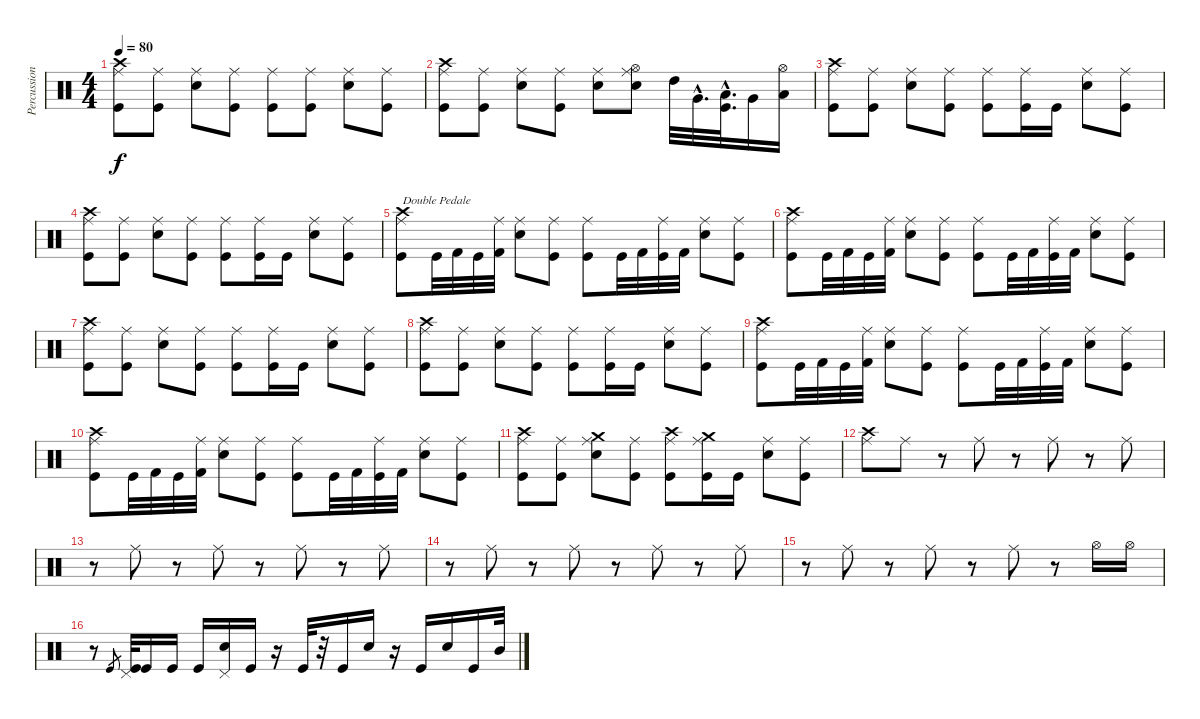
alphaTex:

\track ("Percussions" "Percussion") {instrument percussion}
\staff {score}
\articulation defaults
\ts (4 4)
\tempo 80
\clef neutral
\ks c
("Ride (middle)" "Crash high (hit)" "Kick (hit)").8{dy f} ("Ride (middle)" "Kick (hit)").8 ("Ride (middle)" "Electric Snare (hit)").8 ("Ride (middle)" "Kick (hit)").8 ("Ride (middle)" "Kick (hit)").8 ("Ride (middle)" "Kick (hit)").8 ("Ride (middle)" "Electric Snare (hit)").8 ("Ride (middle)" "Kick (hit)").8 |
("Ride (middle)" "Crash high (hit)" "Kick (hit)").8 ("Ride (middle)" "Kick (hit)").8 ("Ride (middle)" "Electric Snare (hit)").8 ("Ride (middle)" "Kick (hit)").8 ("Ride (middle)" "Electric Snare (hit)").8 ("Ride (middle)" "Hi-Hat (open)" "Electric Snare (hit)").8 "High Tom (hit)".32 "Very Low Tom (hit)"{hac}.32{d} ("Low Tom (hit)"{hac} "Kick (hit)"{hac}).32{d} "Very Low Tom (hit)".16 ("Hi-Hat (open)" "Low Floor Tom (hit)").16 |
("Ride (middle)" "Crash high (hit)" "Kick (hit)").8 ("Ride (middle)" "Kick (hit)").8 ("Ride (middle)" "Electric Snare (hit)").8 ("Ride (middle)" "Kick (hit)").8 ("Ride (middle)" "Kick (hit)").8 ("Ride (middle)" "Kick (hit)").16 "Kick (hit)".16 ("Ride (middle)" "Electric Snare (hit)").8 ("Ride (middle)" "Kick (hit)").8 |
("Ride (middle)" "Crash high (hit)" "Kick (hit)").8 ("Ride (middle)" "Kick (hit)").8 ("Ride (middle)" "Electric Snare (hit)").8 ("Ride (middle)" "Kick (hit)").8 ("Ride (middle)" "Kick (hit)").8 ("Ride (middle)" "Kick (hit)").16 "Kick (hit)".16 ("Ride (middle)" "Electric Snare (hit)").8 ("Ride (middle)" "Kick (hit)").8 |
("Ride (middle)" "Crash high (hit)" "Kick (hit)").8{txt "Double Pedale"} "Kick (hit)".32 "Kick (hit) 2".32 "Kick (hit)".32 ("Ride (middle)" "Kick (hit) 2").32 ("Ride (middle)" "Electric Snare (hit)").8 ("Ride (middle)" "Kick (hit)").8 ("Ride (middle)" "Kick (hit)").8 "Kick (hit)".32 "Kick (hit) 2".32 ("Ride (middle)" "Kick (hit)").32 "Kick (hit) 2".32 ("Ride (middle)" "Electric Snare (hit)").8 ("Ride (middle)" "Kick (hit)").8 |
("Ride (middle)" "Crash high (hit)" "Kick (hit)").8 "Kick (hit)".32 "Kick (hit) 2".32 "Kick (hit)".32 ("Ride (middle)" "Kick (hit) 2").32 ("Ride (middle)" "Electric Snare (hit)").8 ("Ride (middle)" "Kick (hit)").8 ("Ride (middle)" "Kick (hit)").8 "Kick (hit)".32 "Kick (hit) 2".32 ("Ride (middle)" "Kick (hit)").32 "Kick (hit) 2".32 ("Ride (middle)" "Electric Snare (hit)").8 ("Ride (middle)" "Kick (hit)").8 |
("Ride (middle)" "Crash high (hit)" "Kick (hit)").8 ("Ride (middle)" "Kick (hit)").8 ("Ride (middle)" "Electric Snare (hit)").8 ("Ride (middle)" "Kick (hit)").8 ("Ride (middle)" "Kick (hit)").8 ("Ride (middle)" "Kick (hit)").16 "Kick (hit)".16 ("Ride (middle)" "Electric Snare (hit)").8 ("Ride (middle)" "Kick (hit)").8 |
("Ride (middle)" "Crash high (hit)" "Kick (hit)").8 ("Ride (middle)" "Kick (hit)").8 ("Ride (middle)" "Electric Snare (hit)").8 ("Ride (middle)" "Kick (hit)").8 ("Ride (middle)" "Kick (hit)").8 ("Ride (middle)" "Kick (hit)").16 "Kick (hit)".16 ("Ride (middle)" "Electric Snare (hit)").8 ("Ride (middle)" "Kick (hit)").8 |
("Ride (middle)" "Crash high (hit)" "Kick (hit)").8 "Kick (hit)".32 "Kick (hit) 2".32 "Kick (hit)".32 ("Ride (middle)" "Kick (hit) 2").32 ("Ride (middle)" "Electric Snare (hit)").8 ("Ride (middle)" "Kick (hit)").8 ("Ride (middle)" "Kick (hit)").8 "Kick (hit)".32 "Kick (hit) 2".32 ("Ride (middle)" "Kick (hit)").32 "Kick (hit) 2".32 ("Ride (middle)" "Electric Snare (hit)").8 ("Ride (middle)" "Kick (hit)").8 |
("Ride (middle)" "Crash high (hit)" "Kick (hit)").8 "Kick (hit)".32 "Kick (hit) 2".32 "Kick (hit)".32 ("Ride (middle)" "Kick (hit) 2").32 ("Ride (middle)" "Electric Snare (hit)").8 ("Ride (middle)" "Kick (hit)").8 ("Ride (middle)" "Kick (hit)").8 "Kick (hit)".32 "Kick (hit) 2".32 ("Ride (middle)" "Kick (hit)").32 "Kick (hit) 2".32 ("Ride (middle)" "Electric Snare (hit)").8 ("Ride (middle)" "Kick (hit)").8 |
("Ride (middle)" "Crash high (hit)" "Kick (hit)").8 ("Ride (middle)" "Kick (hit)").8 ("Ride (middle)" "Crash medium (hit)" "Electric Snare (hit)").8 ("Ride (middle)" "Kick (hit)").8 ("Ride (middle)" "Crash high (hit)" "Kick (hit)").8 ("Ride (middle)" "Crash medium (hit)" "Kick (hit)").16 "Kick (hit)".16 ("Ride (middle)" "Electric Snare (hit)").8 ("Ride (middle)" "Kick (hit)").8 |
("Crash high (hit)" "Ride (middle)").8 "Ride (middle)".8 r.8 "Ride (middle)".8 r.8 "Ride (middle)".8 r.8 "Ride (middle)".8 |
r.8 "Ride (middle)".8 r.8 "Ride (middle)".8 r.8 "Ride (middle)".8 r.8 "Ride (middle)".8 |
r.8 "Ride (middle)".8 r.8 "Ride (middle)".8 r.8 "Ride (middle)".8 r.8 "Ride (middle)".8 |
r.8 "Ride (middle)".8 r.8 "Ride (middle)".8 r.8 "Ride (middle)".8 r.8 "Hi-Hat (open)".16 "Hi-Hat (open)".16 |
r.8 "Kick (hit)".8{gr} ("Pedal Hi-Hat (hit)" "Kick (hit)").32 "Kick (hit)".16 "Kick (hit)".16 "Kick (hit)".16 ("Pedal Hi-Hat (hit)" "Electric Snare (hit)").16 "Kick (hit)".16 r.16 "Kick (hit)".32 r.32 "Kick (hit)".16 "Snare (hit) 2".16 r.16 "Kick (hit)".16 "Snare (hit) 2".16 "Kick (hit)".16 "Mid Tom (hit)".32
